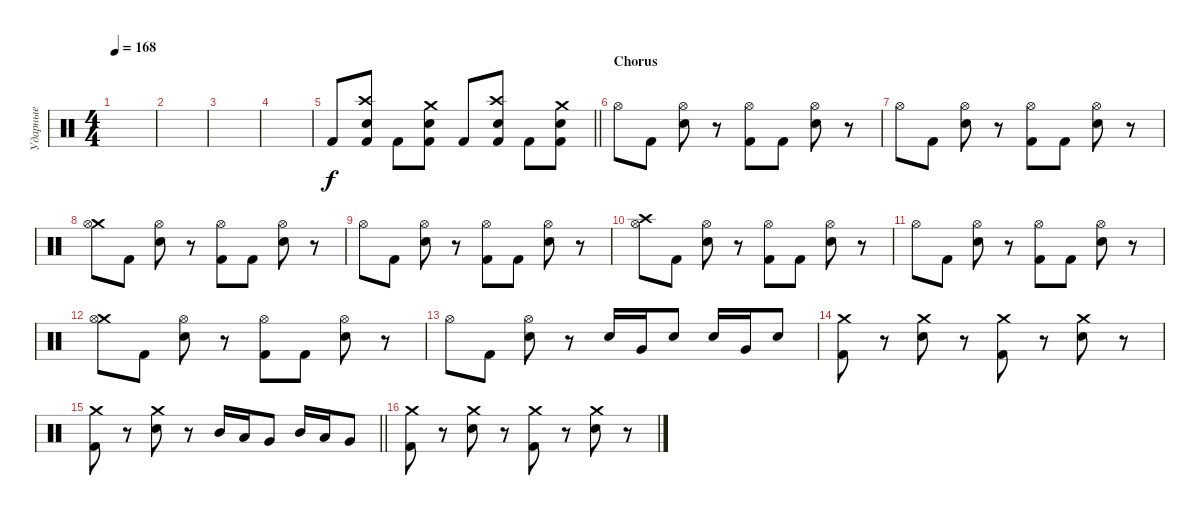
\track ("Ударные" "Ударные") {instrument percussion}
\staff {score}
\articulation defaults
\ts (4 4)
\tempo 168
\clef neutral
\ks c
|
|
|
|
\barLineRight lightlight "Kick (hit) 2".8
("Crash high (hit)" "Snare (hit) 2" "Kick (hit) 2").8 "Kick (hit) 2".8 ("Crash medium (hit)" "Snare (hit) 2" "Kick (hit) 2").8 "Kick (hit) 2".8 ("Crash high (hit)" "Snare (hit) 2" "Kick (hit) 2").8 "Kick (hit) 2".8 ("Crash medium (hit)" "Snare (hit) 2" "Kick (hit) 2").8 |
\section ("" "Chorus")
"Hi-Hat (open)".8 "Kick (hit) 2".8 ("Hi-Hat (open)" "Snare (hit) 2").8 r.8 ("Hi-Hat (open)" "Kick (hit) 2").8 "Kick (hit) 2".8 ("Hi-Hat (open)" "Snare (hit) 2").8 r.8 |
"Hi-Hat (open)".8 "Kick (hit) 2".8 ("Hi-Hat (open)" "Snare (hit) 2").8 r.8 ("Hi-Hat (open)" "Kick (hit) 2").8 "Kick (hit) 2".8 ("Hi-Hat (open)" "Snare (hit) 2").8 r.8 |
("Crash medium (hit)" "Hi-Hat (open)").8 "Kick (hit) 2".8 ("Hi-Hat (open)" "Snare (hit) 2").8 r.8 ("Hi-Hat (open)" "Kick (hit) 2").8 "Kick (hit) 2".8 ("Hi-Hat (open)" "Snare (hit) 2").8 r.8 |
"Hi-Hat (open)".8 "Kick (hit) 2".8 ("Hi-Hat (open)" "Snare (hit) 2").8 r.8 ("Hi-Hat (open)" "Kick (hit) 2").8 "Kick (hit) 2".8 ("Hi-Hat (open)" "Snare (hit) 2").8 r.8 |
("Crash high (hit)" "Hi-Hat (open)").8 "Kick (hit) 2".8 ("Hi-Hat (open)" "Snare (hit) 2").8 r.8 ("Hi-Hat (open)" "Kick (hit) 2").8 "Kick (hit) 2".8 ("Hi-Hat (open)" "Snare (hit) 2").8 r.8 |
"Hi-Hat (open)".8 "Kick (hit) 2".8 ("Hi-Hat (open)" "Snare (hit) 2").8 r.8 ("Hi-Hat (open)" "Kick (hit) 2").8 "Kick (hit) 2".8 ("Hi-Hat (open)" "Snare (hit) 2").8 r.8 |
("Crash medium (hit)" "Hi-Hat (open)").8 "Kick (hit) 2".8 ("Hi-Hat (open)" "Snare (hit) 2").8 r.8 ("Hi-Hat (open)" "Kick (hit) 2").8 "Kick (hit) 2".8 ("Hi-Hat (open)" "Snare (hit) 2").8 r.8 |
"Hi-Hat (open)".8 "Kick (hit) 2".8 ("Hi-Hat (open)" "Snare (hit) 2").8 r.8 "Snare (hit) 2".16 "Very Low Tom (hit)".16 "Snare (hit) 2".8 "Snare (hit) 2".16 "Very Low Tom (hit)".16 "Snare (hit) 2".8 |
("Crash medium (hit)" "Kick (hit) 2").8 r.8 ("Crash medium (hit)" "Snare (hit) 2").8 r.8 ("Crash medium (hit)" "Kick (hit) 2").8 r.8 ("Crash medium (hit)" "Snare (hit) 2").8 r.8 |
\barLineRight lightlight
("Crash medium (hit)" "Kick (hit) 2").8 r.8 ("Crash medium (hit)" "Snare (hit) 2").8 r.8 "Mid Tom (hit)".16 "Low Tom (hit)".16 "Very Low Tom (hit)".8 "Mid Tom (hit)".16 "Low Tom (hit)".16 "Very Low Tom (hit)".8 |
("Crash medium (hit)" "Kick (hit) 2").8 r.8 ("Crash medium (hit)" "Snare (hit) 2").8 r.8 ("Crash medium (hit)" "Kick (hit) 2").8 r.8 ("Crash medium (hit)" "Snare (hit) 2").8 r.8
